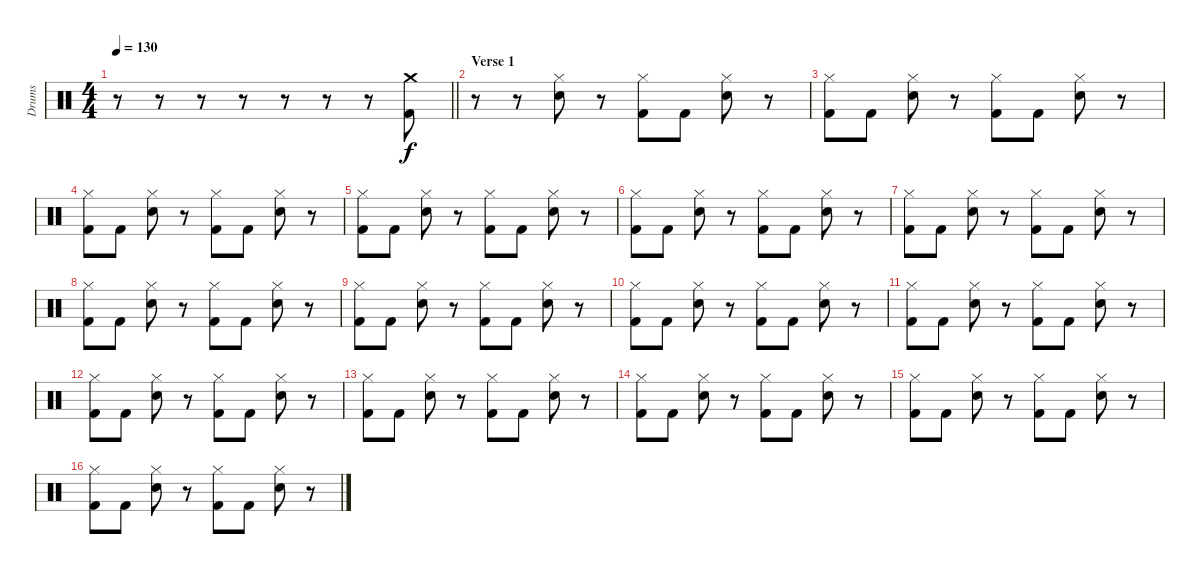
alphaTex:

\track ("Drums" "Drums") {instrument percussion}
\staff {score}
\articulation defaults
\ts (4 4)
\tempo 130
\clef neutral
\barLineRight lightlight
\ks c
r.8{dy f} r.8 r.8 r.8 r.8 r.8 r.8 ("Crash medium (hit)" "Kick (hit) 2").8 |
\section ("" "Verse 1")
r.8 r.8 ("Hi-Hat (closed)" "Snare (hit) 2").8 r.8 ("Hi-Hat (closed)" "Kick (hit) 2").8 "Kick (hit) 2".8 ("Hi-Hat (closed)" "Snare (hit) 2").8 r.8 |
("Hi-Hat (closed)" "Kick (hit) 2").8 "Kick (hit) 2".8 ("Hi-Hat (closed)" "Snare (hit) 2").8 r.8 ("Hi-Hat (closed)" "Kick (hit) 2").8 "Kick (hit) 2".8 ("Hi-Hat (closed)" "Snare (hit) 2").8 r.8 |
("Hi-Hat (closed)" "Kick (hit) 2").8 "Kick (hit) 2".8 ("Hi-Hat (closed)" "Snare (hit) 2").8 r.8 ("Hi-Hat (closed)" "Kick (hit) 2").8 "Kick (hit) 2".8 ("Hi-Hat (closed)" "Snare (hit) 2").8 r.8 |
("Hi-Hat (closed)" "Kick (hit) 2").8 "Kick (hit) 2".8 ("Hi-Hat (closed)" "Snare (hit) 2").8 r.8 ("Hi-Hat (closed)" "Kick (hit) 2").8 "Kick (hit) 2".8 ("Hi-Hat (closed)" "Snare (hit) 2").8 r.8 |
("Hi-Hat (closed)" "Kick (hit) 2").8 "Kick (hit) 2".8 ("Hi-Hat (closed)" "Snare (hit) 2").8 r.8 ("Hi-Hat (closed)" "Kick (hit) 2").8 "Kick (hit) 2".8 ("Hi-Hat (closed)" "Snare (hit) 2").8 r.8 |
("Hi-Hat (closed)" "Kick (hit) 2").8 "Kick (hit) 2".8 ("Hi-Hat (closed)" "Snare (hit) 2").8 r.8 ("Hi-Hat (closed)" "Kick (hit) 2").8 "Kick (hit) 2".8 ("Hi-Hat (closed)" "Snare (hit) 2").8 r.8 |
("Hi-Hat (closed)" "Kick (hit) 2").8 "Kick (hit) 2".8 ("Hi-Hat (closed)" "Snare (hit) 2").8 r.8 ("Hi-Hat (closed)" "Kick (hit) 2").8 "Kick (hit) 2".8 ("Hi-Hat (closed)" "Snare (hit) 2").8 r.8 |
("Hi-Hat (closed)" "Kick (hit) 2").8 "Kick (hit) 2".8 ("Hi-Hat (closed)" "Snare (hit) 2").8 r.8 ("Hi-Hat (closed)" "Kick (hit) 2").8 "Kick (hit) 2".8 ("Hi-Hat (closed)" "Snare (hit) 2").8 r.8 |
("Hi-Hat (closed)" "Kick (hit) 2").8 "Kick (hit) 2".8 ("Hi-Hat (closed)" "Snare (hit) 2").8 r.8 ("Hi-Hat (closed)" "Kick (hit) 2").8 "Kick (hit) 2".8 ("Hi-Hat (closed)" "Snare (hit) 2").8 r.8 |
("Hi-Hat (closed)" "Kick (hit) 2").8 "Kick (hit) 2".8 ("Hi-Hat (closed)" "Snare (hit) 2").8 r.8 ("Hi-Hat (closed)" "Kick (hit) 2").8 "Kick (hit) 2".8 ("Hi-Hat (closed)" "Snare (hit) 2").8 r.8 |
("Hi-Hat (closed)" "Kick (hit) 2").8 "Kick (hit) 2".8 ("Hi-Hat (closed)" "Snare (hit) 2").8 r.8 ("Hi-Hat (closed)" "Kick (hit) 2").8 "Kick (hit) 2".8 ("Hi-Hat (closed)" "Snare (hit) 2").8 r.8 |
("Hi-Hat (closed)" "Kick (hit) 2").8 "Kick (hit) 2".8 ("Hi-Hat (closed)" "Snare (hit) 2").8 r.8 ("Hi-Hat (closed)" "Kick (hit) 2").8 "Kick (hit) 2".8 ("Hi-Hat (closed)" "Snare (hit) 2").8 r.8 |
("Hi-Hat (closed)" "Kick (hit) 2").8 "Kick (hit) 2".8 ("Hi-Hat (closed)" "Snare (hit) 2").8 r.8 ("Hi-Hat (closed)" "Kick (hit) 2").8 "Kick (hit) 2".8 ("Hi-Hat (closed)" "Snare (hit) 2").8 r.8 |
("Hi-Hat (closed)" "Kick (hit) 2").8 "Kick (hit) 2".8 ("Hi-Hat (closed)" "Snare (hit) 2").8 r.8 ("Hi-Hat (closed)" "Kick (hit) 2").8 "Kick (hit) 2".8 ("Hi-Hat (closed)" "Snare (hit) 2").8 r.8 |
("Hi-Hat (closed)" "Kick (hit) 2").8 "Kick (hit) 2".8 ("Hi-Hat (closed)" "Snare (hit) 2").8 r.8 ("Hi-Hat (closed)" "Kick (hit) 2").8 "Kick (hit) 2".8 ("Hi-Hat (closed)" "Snare (hit) 2").8 r.8
